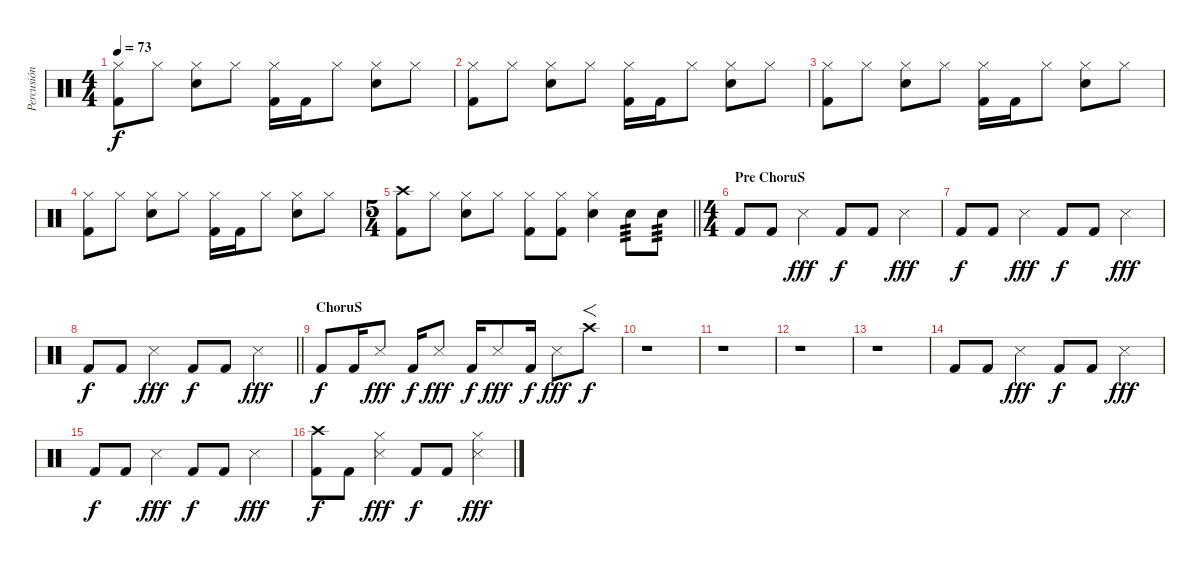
\track ("Percusión" "Percusión") {instrument percussion}
\staff {score}
\articulation defaults
\ts (4 4)
\tempo 73
\clef neutral
\ks c
("Hi-Hat (closed)" "Kick (hit) 2").8{dy f} "Hi-Hat (closed)".8 ("Hi-Hat (closed)" "Electric Snare (hit)").8 "Hi-Hat (closed)".8 ("Hi-Hat (closed)" "Kick (hit) 2").16 "Kick (hit) 2".16 "Hi-Hat (closed)".8 ("Hi-Hat (closed)" "Electric Snare (hit)").8 "Hi-Hat (closed)".8 |
("Hi-Hat (closed)" "Kick (hit) 2").8 "Hi-Hat (closed)".8 ("Hi-Hat (closed)" "Electric Snare (hit)").8 "Hi-Hat (closed)".8 ("Hi-Hat (closed)" "Kick (hit) 2").16 "Kick (hit) 2".16 "Hi-Hat (closed)".8 ("Hi-Hat (closed)" "Electric Snare (hit)").8 "Hi-Hat (closed)".8 |
("Hi-Hat (closed)" "Kick (hit) 2").8 "Hi-Hat (closed)".8 ("Hi-Hat (closed)" "Electric Snare (hit)").8 "Hi-Hat (closed)".8 ("Hi-Hat (closed)" "Kick (hit) 2").16 "Kick (hit) 2".16 "Hi-Hat (closed)".8 ("Hi-Hat (closed)" "Electric Snare (hit)").8 "Hi-Hat (closed)".8 |
("Hi-Hat (closed)" "Kick (hit) 2").8 "Hi-Hat (closed)".8 ("Hi-Hat (closed)" "Electric Snare (hit)").8 "Hi-Hat (closed)".8 ("Hi-Hat (closed)" "Kick (hit) 2").16 "Kick (hit) 2".16 "Hi-Hat (closed)".8 ("Hi-Hat (closed)" "Electric Snare (hit)").8 "Hi-Hat (closed)".8 |
\ts (5 4)
\barLineRight lightlight
("Crash high (hit)" "Kick (hit) 2").8 "Hi-Hat (closed)".8 ("Hi-Hat (closed)" "Electric Snare (hit)").8 "Hi-Hat (closed)".8 ("Hi-Hat (closed)" "Kick (hit) 2").8 ("Hi-Hat (closed)" "Kick (hit) 2").8 ("Hi-Hat (closed)" "Electric Snare (hit)").4 "Electric Snare (hit)".8{tp 3} "Electric Snare (hit)".8{tp 3} |
\ts (4 4)
\section ("" "Pre ChoruS")
"Kick (hit) 2".8 "Kick (hit) 2".8 "Snare (side stick) 3".4{dy fff} "Kick (hit) 2".8{dy f} "Kick (hit) 2".8 "Snare (side stick) 3".4{dy fff} |
"Kick (hit) 2".8{dy f} "Kick (hit) 2".8 "Snare (side stick) 3".4{dy fff} "Kick (hit) 2".8{dy f} "Kick (hit) 2".8 "Snare (side stick) 3".4{dy fff} |
\barLineRight lightlight "Kick (hit) 2".8{dy f} "Kick (hit) 2".8 "Snare (side stick) 3".4{dy fff} "Kick (hit) 2".8{dy f} "Kick (hit) 2".8 "Snare (side stick) 3".4{dy fff}
|
\section ("" "ChoruS")
"Kick (hit) 2".8{dy f} "Kick (hit) 2".16 "Snare (side stick) 3".8{dy fff} "Kick (hit) 2".16{dy f} "Snare (side stick) 3".8{dy fff} "Kick (hit) 2".16{dy f} "Snare (side stick) 3".8{dy fff} "Kick (hit) 2".16{dy f} "Snare (side stick) 3".8{dy fff} "Crash high (hit)".8{f dy f} |
r.1 |
r.1 |
r.1 |
r.1 |
"Kick (hit) 2".8 "Kick (hit) 2".8 "Snare (side stick) 3".4{dy fff} "Kick (hit) 2".8{dy f} "Kick (hit) 2".8 "Snare (side stick) 3".4{dy fff} |
"Kick (hit) 2".8{dy f} "Kick (hit) 2".8 "Snare (side stick) 3".4{dy fff} "Kick (hit) 2".8{dy f} "Kick (hit) 2".8 "Snare (side stick) 3".4{dy fff} |
("Crash high (hit)" "Kick (hit) 2").8{dy f} "Kick (hit) 2".8 ("Hi-Hat (closed)" "Snare (side stick) 3").4{dy fff} "Kick (hit) 2".8{dy f} "Kick (hit) 2".8 ("Hi-Hat (closed)" "Snare (side stick) 3").4{dy fff}
